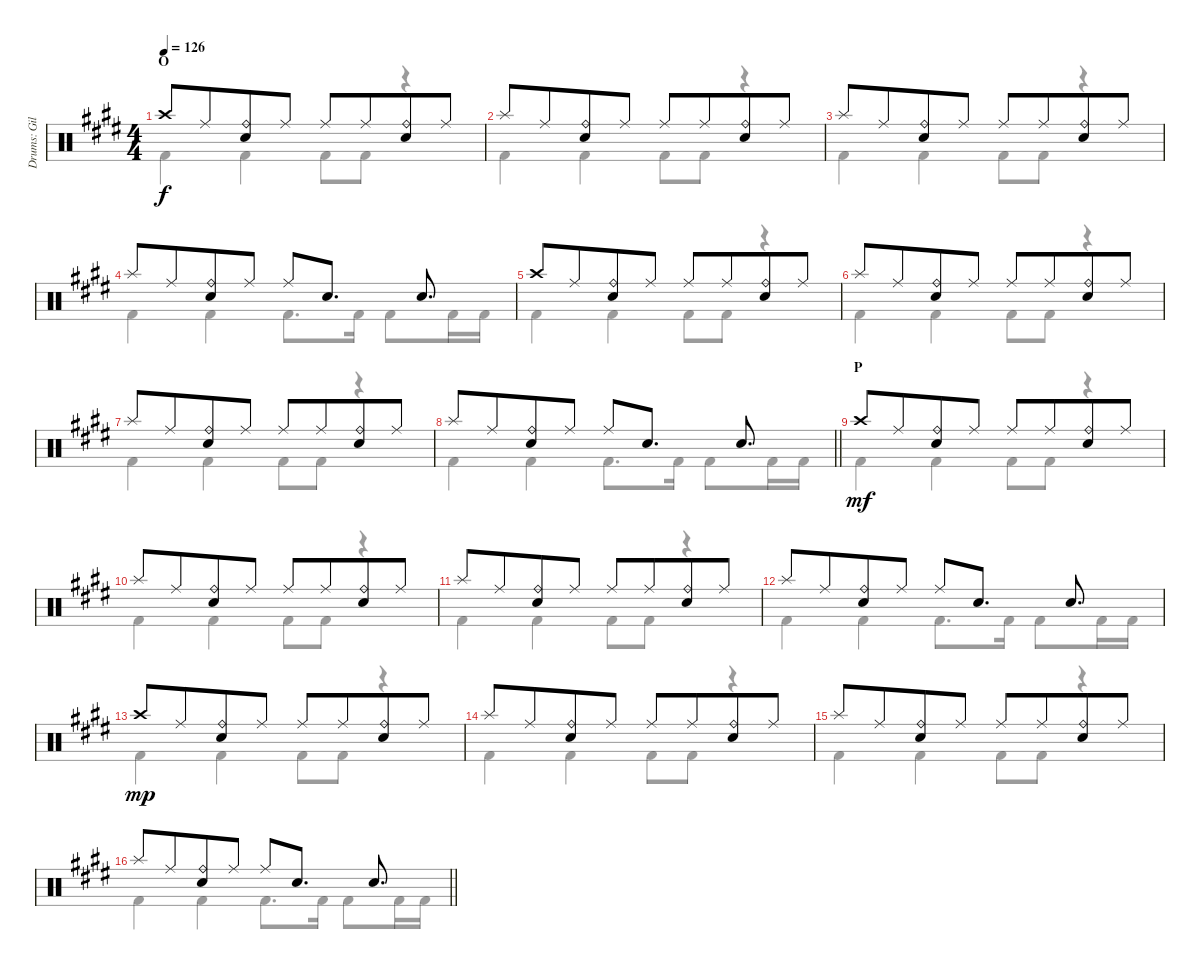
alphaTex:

\track ("Drums: Gil" "Drums: Gil") {instrument percussion}
\staff {score}
\articulation defaults
\voice
\ts (4 4)
\section ("" "O")
\tempo 126
\clef neutral
\ks e "Crash high (hit)".8{dy f} "Ride (middle)".8{beam merge}
("Ride (bell)" "Snare (hit) 2").8 "Ride (middle)".8 "Ride (middle)".8 "Ride (middle)".8{beam merge} ("Ride (bell)" "Snare (hit) 2").8 "Ride (middle)".8 |
"Splash (hit)".8 "Ride (middle)".8{beam merge} ("Ride (bell)" "Snare (hit) 2").8 "Ride (middle)".8 "Ride (middle)".8 "Ride (middle)".8{beam merge} ("Ride (bell)" "Snare (hit) 2").8 "Ride (middle)".8 |
"Splash (hit)".8 "Ride (middle)".8{beam merge} ("Ride (bell)" "Snare (hit) 2").8 "Ride (middle)".8 "Ride (middle)".8 "Ride (middle)".8{beam merge} ("Ride (bell)" "Snare (hit) 2").8 "Ride (middle)".8 |
"Splash (hit)".8 "Ride (middle)".8{beam merge} ("Ride (bell)" "Snare (hit) 2").8 "Ride (middle)".8 "Ride (middle)".8 "Snare (hit) 2".8{d} "Snare (hit) 2".8{d} |
"Crash high (hit)".8 "Ride (middle)".8{beam merge} ("Ride (bell)" "Snare (hit) 2").8 "Ride (middle)".8 "Ride (middle)".8 "Ride (middle)".8{beam merge} ("Ride (bell)" "Snare (hit) 2").8 "Ride (middle)".8 |
"Splash (hit)".8 "Ride (middle)".8{beam merge} ("Ride (bell)" "Snare (hit) 2").8 "Ride (middle)".8 "Ride (middle)".8 "Ride (middle)".8{beam merge} ("Ride (bell)" "Snare (hit) 2").8 "Ride (middle)".8 |
"Splash (hit)".8 "Ride (middle)".8{beam merge} ("Ride (bell)" "Snare (hit) 2").8 "Ride (middle)".8 "Ride (middle)".8 "Ride (middle)".8{beam merge} ("Ride (bell)" "Snare (hit) 2").8 "Ride (middle)".8 |
\barLineRight lightlight "Splash (hit)".8 "Ride (middle)".8{beam merge}
("Ride (bell)" "Snare (hit) 2").8 "Ride (middle)".8 "Ride (middle)".8 "Snare (hit) 2".8{d} "Snare (hit) 2".8{d} |
\section ("" "P")
"Crash high (hit)".8{dy mf volume 8} "Ride (middle)".8{beam merge} ("Ride (bell)" "Snare (hit) 2").8 "Ride (middle)".8 "Ride (middle)".8 "Ride (middle)".8{beam merge} ("Ride (bell)" "Snare (hit) 2").8 "Ride (middle)".8 |
"Splash (hit)".8 "Ride (middle)".8{beam merge} ("Ride (bell)" "Snare (hit) 2").8 "Ride (middle)".8 "Ride (middle)".8 "Ride (middle)".8{beam merge} ("Ride (bell)" "Snare (hit) 2").8 "Ride (middle)".8 |
"Splash (hit)".8 "Ride (middle)".8{beam merge} ("Ride (bell)" "Snare (hit) 2").8 "Ride (middle)".8 "Ride (middle)".8 "Ride (middle)".8{beam merge} ("Ride (bell)" "Snare (hit) 2").8 "Ride (middle)".8 |
"Splash (hit)".8 "Ride (middle)".8{beam merge} ("Ride (bell)" "Snare (hit) 2").8 "Ride (middle)".8 "Ride (middle)".8 "Snare (hit) 2".8{d} "Snare (hit) 2".8{d} |
"Crash high (hit)".8{dy mp volume 0} "Ride (middle)".8{beam merge} ("Ride (bell)" "Snare (hit) 2").8 "Ride (middle)".8 "Ride (middle)".8 "Ride (middle)".8{beam merge} ("Ride (bell)" "Snare (hit) 2").8 "Ride (middle)".8 |
"Splash (hit)".8 "Ride (middle)".8{beam merge} ("Ride (bell)" "Snare (hit) 2").8 "Ride (middle)".8 "Ride (middle)".8 "Ride (middle)".8{beam merge} ("Ride (bell)" "Snare (hit) 2").8 "Ride (middle)".8 |
"Splash (hit)".8 "Ride (middle)".8{beam merge} ("Ride (bell)" "Snare (hit) 2").8 "Ride (middle)".8 "Ride (middle)".8 "Ride (middle)".8{beam merge} ("Ride (bell)" "Snare (hit) 2").8 "Ride (middle)".8 |
\barLineRight lightlight "Splash (hit)".8 "Ride (middle)".8{beam merge}
("Ride (bell)" "Snare (hit) 2").8 "Ride (middle)".8 "Ride (middle)".8 "Snare (hit) 2".8{d} "Snare (hit) 2".8{d}
\voice
\clef neutral
\ottava regular
\simile none
\ks e "Kick (hit) 2".4{dy f} "Kick (hit) 2".4 "Kick (hit) 2".8 "Kick (hit) 2".8
r.4 |
"Kick (hit) 2".4 "Kick (hit) 2".4 "Kick (hit) 2".8 "Kick (hit) 2".8 r.4 |
"Kick (hit) 2".4 "Kick (hit) 2".4 "Kick (hit) 2".8 "Kick (hit) 2".8 r.4 |
"Kick (hit) 2".4 "Kick (hit) 2".4 "Kick (hit) 2".8{d} "Kick (hit) 2".16 "Kick (hit) 2".8 "Kick (hit) 2".16 "Kick (hit) 2".16 |
"Kick (hit) 2".4 "Kick (hit) 2".4 "Kick (hit) 2".8 "Kick (hit) 2".8 r.4 |
"Kick (hit) 2".4 "Kick (hit) 2".4 "Kick (hit) 2".8 "Kick (hit) 2".8 r.4 |
"Kick (hit) 2".4 "Kick (hit) 2".4 "Kick (hit) 2".8 "Kick (hit) 2".8 r.4 |
\barLineRight lightlight "Kick (hit) 2".4 "Kick (hit) 2".4 "Kick (hit) 2".8{d} "Kick (hit) 2".16 "Kick (hit) 2".8 "Kick (hit) 2".16 "Kick (hit) 2".16
|
"Kick (hit) 2".4{dy mf} "Kick (hit) 2".4 "Kick (hit) 2".8 "Kick (hit) 2".8 r.4 |
"Kick (hit) 2".4 "Kick (hit) 2".4 "Kick (hit) 2".8 "Kick (hit) 2".8 r.4 |
"Kick (hit) 2".4 "Kick (hit) 2".4 "Kick (hit) 2".8 "Kick (hit) 2".8 r.4 |
"Kick (hit) 2".4 "Kick (hit) 2".4 "Kick (hit) 2".8{d} "Kick (hit) 2".16 "Kick (hit) 2".8 "Kick (hit) 2".16 "Kick (hit) 2".16 |
"Kick (hit) 2".4{dy mp} "Kick (hit) 2".4 "Kick (hit) 2".8 "Kick (hit) 2".8 r.4 |
"Kick (hit) 2".4 "Kick (hit) 2".4 "Kick (hit) 2".8 "Kick (hit) 2".8 r.4 |
"Kick (hit) 2".4 "Kick (hit) 2".4 "Kick (hit) 2".8 "Kick (hit) 2".8 r.4 |
\barLineRight lightlight "Kick (hit) 2".4 "Kick (hit) 2".4 "Kick (hit) 2".8{d} "Kick (hit) 2".16 "Kick (hit) 2".8 "Kick (hit) 2".16 "Kick (hit) 2".16
